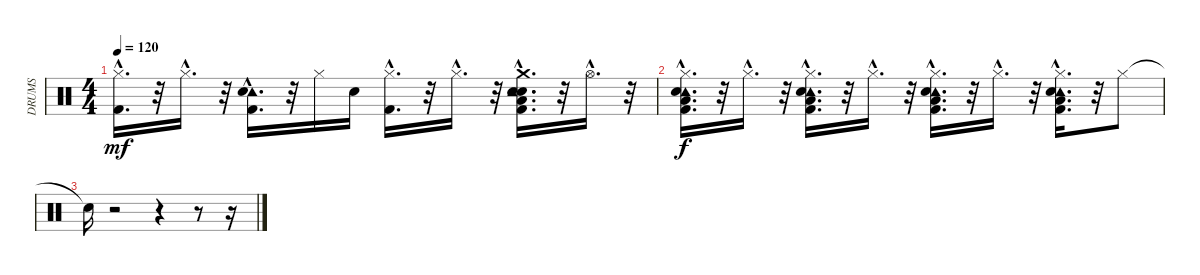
\track ("DRUMS" "DRUMS") {instrument percussion}
\staff {score}
\articulation defaults
\ts (4 4)
\tempo 120
\clef neutral
\ks c
("Hi-Hat (closed)"{hac} "Kick (hit) 2"{hac}).16{d dy mf} r.32 "Hi-Hat (closed)"{hac}.16{d} r.32 ("Tambourine (hit)"{hac} "Electric Snare (hit)"{hac} "Kick (hit) 2"{hac}).16{d} r.32 "Hi-Hat (closed)".16 "Electric Snare (hit)".16 ("Hi-Hat (closed)"{hac} "Kick (hit) 2"{hac}).16{d} r.32 "Hi-Hat (closed)"{hac}.16{d} r.32 ("Snare (hit) 2"{hac} "Low Floor Tom (hit)"{hac} "Crash medium (hit)"{hac} "Tambourine (hit)"{hac} "Electric Snare (hit)"{hac} "Kick (hit) 2"{hac}).16{d} r.32 "Hi-Hat (open)"{hac}.16{d} r.32 |
("Low Floor Tom (hit)"{hac} "Tambourine (hit)"{hac} "Kick (hit) 2"{hac} "Electric Snare (hit)"{hac} "Hi-Hat (closed)"{hac}).16{d dy f} r.32 "Hi-Hat (closed)"{hac}.16{d} r.32 ("Low Floor Tom (hit)"{hac} "Tambourine (hit)"{hac} "Kick (hit) 2"{hac} "Electric Snare (hit)"{hac} "Hi-Hat (closed)"{hac}).16{d} r.32 "Hi-Hat (closed)"{hac}.16{d} r.32 ("Low Floor Tom (hit)"{hac} "Tambourine (hit)"{hac} "Kick (hit) 2"{hac} "Electric Snare (hit)"{hac} "Hi-Hat (closed)"{hac}).16{d} r.32 "Hi-Hat (closed)"{hac}.16{d} r.32 ("Low Floor Tom (hit)"{hac} "Tambourine (hit)"{hac} "Kick (hit) 2"{hac} "Electric Snare (hit)"{hac} "Hi-Hat (closed)"{hac}).16{d} r.32 "Hi-Hat (closed)".8 |
"Snare (hit)"{t}.16 r.2 r.4 r.8 r.16
